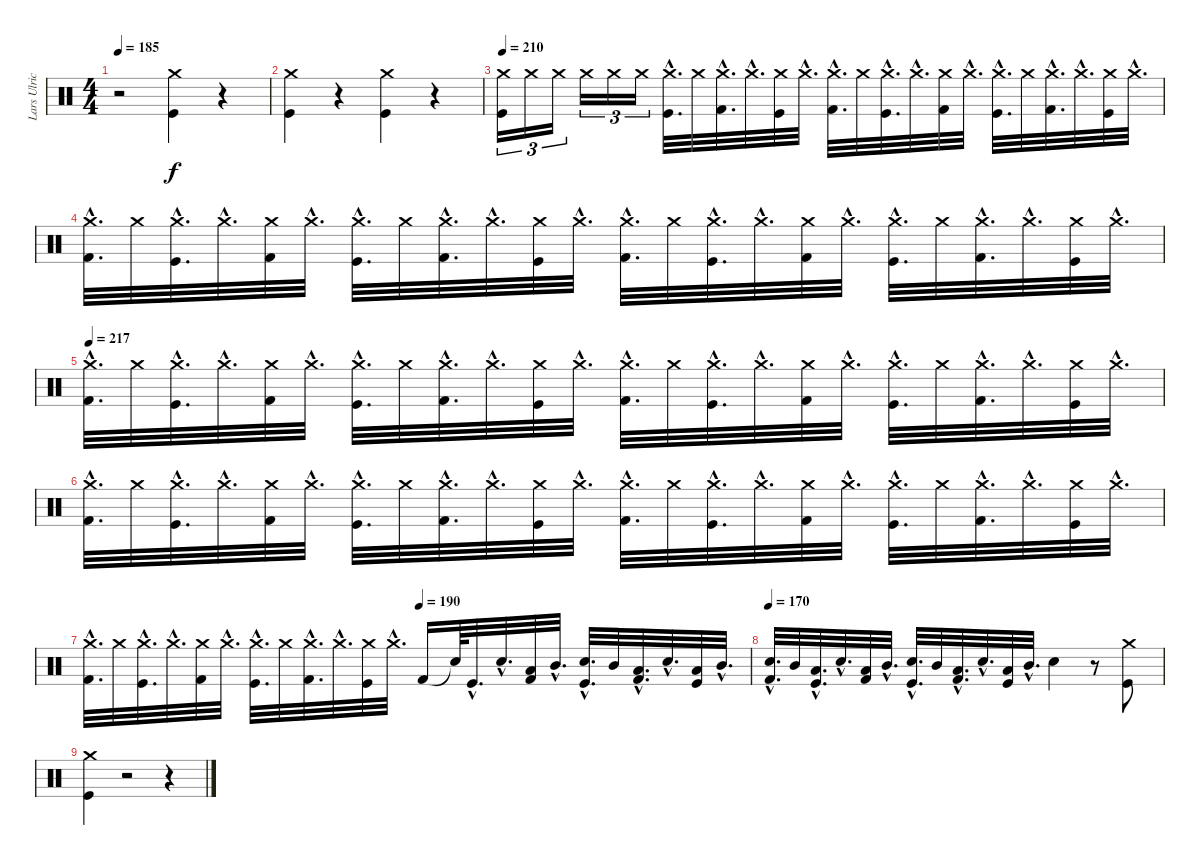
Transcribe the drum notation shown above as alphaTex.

\track ("Lars Ulrich (Drums)" "Lars Ulric") {instrument percussion}
\staff {score}
\articulation defaults
\ts (4 4)
\tempo 185
\clef neutral
\ks c
r.2{dy f} ("Kick (hit)" "Crash medium (hit)").4 r.4 |
("Crash medium (hit)" "Kick (hit)").4 r.4 ("Kick (hit)" "Crash medium (hit)").4 r.4 |
\tempo 210
("Kick (hit)" "Crash medium (hit)").16{tu (3 2)} "Crash medium (hit)".16{tu (3 2)} "Crash medium (hit)".16{tu (3 2)} "Crash medium (hit)".16{tu (3 2)} "Crash medium (hit)".16{tu (3 2)} "Crash medium (hit)".16{tu (3 2)} ("Kick (hit)"{hac} "Crash medium (hit)"{hac}).32{d} "Crash medium (hit)".32 ("Kick (hit) 2"{hac} "Crash medium (hit)"{hac}).32{d} "Crash medium (hit)"{hac}.32{d} ("Kick (hit)" "Crash medium (hit)").32 "Crash medium (hit)"{hac}.32{d} ("Kick (hit) 2"{hac} "Crash medium (hit)"{hac}).32{d} "Crash medium (hit)".32 ("Kick (hit)"{hac} "Crash medium (hit)"{hac}).32{d} "Crash medium (hit)"{hac}.32{d} ("Kick (hit) 2" "Crash medium (hit)").32 "Crash medium (hit)"{hac}.32{d} ("Kick (hit)"{hac} "Crash medium (hit)"{hac}).32{d} "Crash medium (hit)".32 ("Kick (hit) 2"{hac} "Crash medium (hit)"{hac}).32{d} "Crash medium (hit)"{hac}.32{d} ("Kick (hit)" "Crash medium (hit)").32 "Crash medium (hit)"{hac}.32{d} |
("Kick (hit) 2"{hac} "Crash medium (hit)"{hac}).32{d} "Crash medium (hit)".32 ("Kick (hit)"{hac} "Crash medium (hit)"{hac}).32{d} "Crash medium (hit)"{hac}.32{d} ("Kick (hit) 2" "Crash medium (hit)").32 "Crash medium (hit)"{hac}.32{d} ("Kick (hit)"{hac} "Crash medium (hit)"{hac}).32{d} "Crash medium (hit)".32 ("Kick (hit) 2"{hac} "Crash medium (hit)"{hac}).32{d} "Crash medium (hit)"{hac}.32{d} ("Kick (hit)" "Crash medium (hit)").32 "Crash medium (hit)"{hac}.32{d} ("Kick (hit) 2"{hac} "Crash medium (hit)"{hac}).32{d} "Crash medium (hit)".32 ("Kick (hit)"{hac} "Crash medium (hit)"{hac}).32{d} "Crash medium (hit)"{hac}.32{d} ("Kick (hit) 2" "Crash medium (hit)").32 "Crash medium (hit)"{hac}.32{d} ("Kick (hit)"{hac} "Crash medium (hit)"{hac}).32{d} "Crash medium (hit)".32 ("Kick (hit) 2"{hac} "Crash medium (hit)"{hac}).32{d} "Crash medium (hit)"{hac}.32{d} ("Kick (hit)" "Crash medium (hit)").32 "Crash medium (hit)"{hac}.32{d} |
\tempo 217
("Kick (hit) 2"{hac} "Crash medium (hit)"{hac}).32{d} "Crash medium (hit)".32 ("Kick (hit)"{hac} "Crash medium (hit)"{hac}).32{d} "Crash medium (hit)"{hac}.32{d} ("Kick (hit) 2" "Crash medium (hit)").32 "Crash medium (hit)"{hac}.32{d} ("Kick (hit)"{hac} "Crash medium (hit)"{hac}).32{d} "Crash medium (hit)".32 ("Kick (hit) 2"{hac} "Crash medium (hit)"{hac}).32{d} "Crash medium (hit)"{hac}.32{d} ("Kick (hit)" "Crash medium (hit)").32 "Crash medium (hit)"{hac}.32{d} ("Kick (hit) 2"{hac} "Crash medium (hit)"{hac}).32{d} "Crash medium (hit)".32 ("Kick (hit)"{hac} "Crash medium (hit)"{hac}).32{d} "Crash medium (hit)"{hac}.32{d} ("Kick (hit) 2" "Crash medium (hit)").32 "Crash medium (hit)"{hac}.32{d} ("Kick (hit)"{hac} "Crash medium (hit)"{hac}).32{d} "Crash medium (hit)".32 ("Kick (hit) 2"{hac} "Crash medium (hit)"{hac}).32{d} "Crash medium (hit)"{hac}.32{d} ("Kick (hit)" "Crash medium (hit)").32 "Crash medium (hit)"{hac}.32{d} |
("Kick (hit) 2"{hac} "Crash medium (hit)"{hac}).32{d} "Crash medium (hit)".32 ("Kick (hit)"{hac} "Crash medium (hit)"{hac}).32{d} "Crash medium (hit)"{hac}.32{d} ("Kick (hit) 2" "Crash medium (hit)").32 "Crash medium (hit)"{hac}.32{d} ("Kick (hit)"{hac} "Crash medium (hit)"{hac}).32{d} "Crash medium (hit)".32 ("Kick (hit) 2"{hac} "Crash medium (hit)"{hac}).32{d} "Crash medium (hit)"{hac}.32{d} ("Kick (hit)" "Crash medium (hit)").32 "Crash medium (hit)"{hac}.32{d} ("Kick (hit) 2"{hac} "Crash medium (hit)"{hac}).32{d} "Crash medium (hit)".32 ("Kick (hit)"{hac} "Crash medium (hit)"{hac}).32{d} "Crash medium (hit)"{hac}.32{d} ("Kick (hit) 2" "Crash medium (hit)").32 "Crash medium (hit)"{hac}.32{d} ("Kick (hit)"{hac} "Crash medium (hit)"{hac}).32{d} "Crash medium (hit)".32 ("Kick (hit) 2"{hac} "Crash medium (hit)"{hac}).32{d} "Crash medium (hit)"{hac}.32{d} ("Kick (hit)" "Crash medium (hit)").32 "Crash medium (hit)"{hac}.32{d} |
\tempo (190 0.5)
("Kick (hit) 2"{hac} "Crash medium (hit)"{hac}).32{d} "Crash medium (hit)".32 ("Kick (hit)"{hac} "Crash medium (hit)"{hac}).32{d} "Crash medium (hit)"{hac}.32{d} ("Kick (hit) 2" "Crash medium (hit)").32 "Crash medium (hit)"{hac}.32{d} ("Kick (hit)"{hac} "Crash medium (hit)"{hac}).32{d} "Crash medium (hit)".32 ("Kick (hit) 2"{hac} "Crash medium (hit)"{hac}).32{d} "Crash medium (hit)"{hac}.32{d} ("Kick (hit)" "Crash medium (hit)").32 "Crash medium (hit)"{hac}.32{d} "Kick (hit) 2".16 "Snare (hit)"{t}.64 "Kick (hit)"{hac}.32{d} "Snare (hit) 2"{hac}.32{d} ("Low Tom (hit)" "Kick (hit) 2").32 "Mid Tom (hit)"{hac}.32{d} ("Snare (hit) 2"{hac} "Kick (hit)"{hac}).32{d} "Mid Tom (hit)".32 ("Low Tom (hit)"{hac} "Kick (hit) 2"{hac}).32{d} "Snare (hit) 2"{hac}.32{d} ("Low Tom (hit)" "Kick (hit)").32 "Mid Tom (hit)"{hac}.32{d} |
\tempo 170
("Snare (hit) 2"{hac} "Kick (hit) 2"{hac}).32{d} "Mid Tom (hit)".32 ("Low Tom (hit)"{hac} "Kick (hit)"{hac}).32{d} "Snare (hit) 2"{hac}.32{d} ("Low Tom (hit)" "Kick (hit) 2").32 "Mid Tom (hit)"{hac}.32{d} ("Snare (hit) 2"{hac} "Kick (hit)"{hac}).32{d} "Mid Tom (hit)".32 ("Low Tom (hit)"{hac} "Kick (hit) 2"{hac}).32{d} "Snare (hit) 2"{hac}.32{d} ("Low Tom (hit)" "Kick (hit)").32 "Mid Tom (hit)"{hac}.32{d} "Snare (hit) 2".4 r.8 ("Kick (hit)" "Crash medium (hit)").8 |
("Kick (hit)" "Crash medium (hit)").4 r.2 r.4
